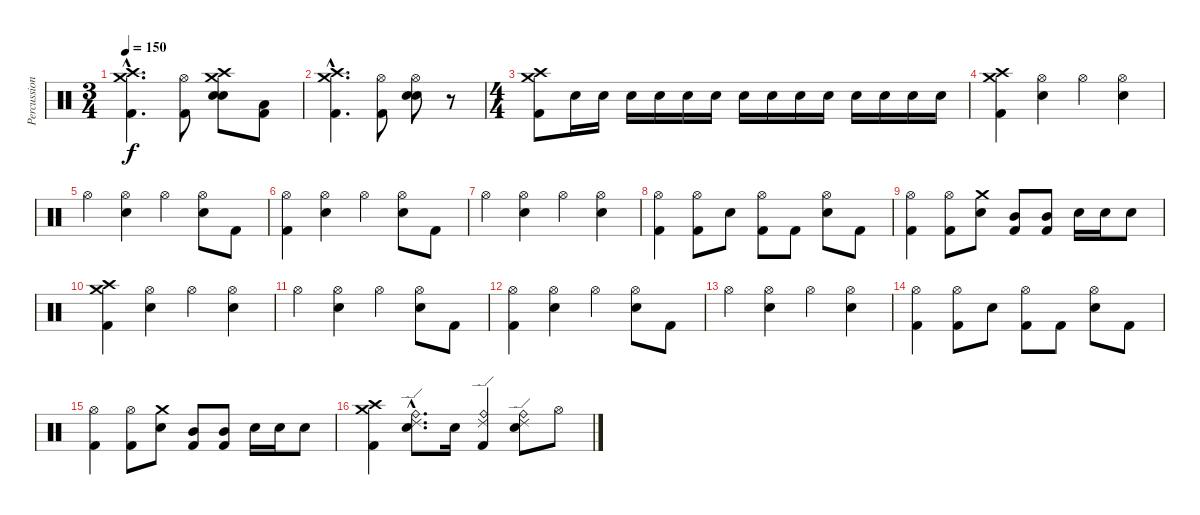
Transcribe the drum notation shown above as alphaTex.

\track ("Percussion" "Percussion") {instrument percussion}
\staff {score}
\articulation defaults
\ts (3 4)
\tempo 150
\clef neutral
\ks c
("Crash medium (hit)"{hac} "Crash high (hit)"{hac} "Kick (hit) 2"{hac}).4{d dy f} ("Hi-Hat (open)" "Kick (hit) 2").8 ("Crash high (hit)" "Crash medium (hit)" "Snare (hit) 2" "Snare (hit) 2").8 ("Low Floor Tom (hit)" "Kick (hit) 2").8 |
("Crash medium (hit)"{hac} "Crash high (hit)"{hac} "Kick (hit) 2"{hac}).4{d} ("Hi-Hat (open)" "Kick (hit) 2").8 ("Hi-Hat (open)" "Snare (hit) 2" "Snare (hit) 2").8 r.8 |
\ts (4 4)
("Crash medium (hit)" "Crash high (hit)" "Kick (hit) 2").8 "Snare (hit) 2".16 "Snare (hit) 2".16 "Snare (hit) 2".16 "Snare (hit) 2".16 "Snare (hit) 2".16 "Snare (hit) 2".16 "Snare (hit) 2".16 "Snare (hit) 2".16 "Snare (hit) 2".16 "Snare (hit) 2".16 "Snare (hit) 2".16 "Snare (hit) 2".16 "Snare (hit) 2".16 "Snare (hit) 2".16 |
("Crash high (hit)" "Crash medium (hit)" "Kick (hit) 2").4 ("Hi-Hat (open)" "Snare (hit) 2").4 "Hi-Hat (open)".4 ("Hi-Hat (open)" "Snare (hit) 2").4 |
"Hi-Hat (open)".4 ("Hi-Hat (open)" "Snare (hit) 2").4 "Hi-Hat (open)".4 ("Hi-Hat (open)" "Snare (hit) 2").8 "Kick (hit) 2".8 |
("Hi-Hat (open)" "Kick (hit) 2").4 ("Hi-Hat (open)" "Snare (hit) 2").4 "Hi-Hat (open)".4 ("Hi-Hat (open)" "Snare (hit) 2").8 "Kick (hit) 2".8 |
"Hi-Hat (open)".4 ("Hi-Hat (open)" "Snare (hit) 2").4 "Hi-Hat (open)".4 ("Hi-Hat (open)" "Snare (hit) 2").4 |
("Hi-Hat (open)" "Kick (hit) 2").4 ("Hi-Hat (open)" "Kick (hit) 2").8 "Snare (hit) 2".8 ("Hi-Hat (open)" "Kick (hit) 2").8 "Kick (hit) 2".8 ("Hi-Hat (open)" "Snare (hit) 2").8 "Kick (hit) 2".8 |
("Hi-Hat (open)" "Kick (hit) 2").4 ("Hi-Hat (open)" "Kick (hit) 2").8 ("Crash medium (hit)" "Snare (hit) 2").8 ("Kick (hit) 2" "Mid Tom (hit)").8 ("Kick (hit) 2" "Mid Tom (hit)").8 "Snare (hit) 2".16 "Snare (hit) 2".16 "Snare (hit) 2".8 |
("Crash high (hit)" "Crash medium (hit)" "Kick (hit) 2").4 ("Hi-Hat (open)" "Snare (hit) 2").4 "Hi-Hat (open)".4 ("Hi-Hat (open)" "Snare (hit) 2").4 |
"Hi-Hat (open)".4 ("Hi-Hat (open)" "Snare (hit) 2").4 "Hi-Hat (open)".4 ("Hi-Hat (open)" "Snare (hit) 2").8 "Kick (hit) 2".8 |
("Hi-Hat (open)" "Kick (hit) 2").4 ("Hi-Hat (open)" "Snare (hit) 2").4 "Hi-Hat (open)".4 ("Hi-Hat (open)" "Snare (hit) 2").8 "Kick (hit) 2".8 |
"Hi-Hat (open)".4 ("Hi-Hat (open)" "Snare (hit) 2").4 "Hi-Hat (open)".4 ("Hi-Hat (open)" "Snare (hit) 2").4 |
("Hi-Hat (open)" "Kick (hit) 2").4 ("Hi-Hat (open)" "Kick (hit) 2").8 "Snare (hit) 2".8 ("Hi-Hat (open)" "Kick (hit) 2").8 "Kick (hit) 2".8 ("Hi-Hat (open)" "Snare (hit) 2").8 "Kick (hit) 2".8 |
("Hi-Hat (open)" "Kick (hit) 2").4 ("Hi-Hat (open)" "Kick (hit) 2").8 ("Crash medium (hit)" "Snare (hit) 2").8 ("Kick (hit) 2" "Mid Tom (hit)").8 ("Kick (hit) 2" "Mid Tom (hit)").8 "Snare (hit) 2".16 "Snare (hit) 2".16 "Snare (hit) 2".8 |
("Crash high (hit)" "Crash medium (hit)" "Kick (hit) 2").4 ("Ride (bell)"{hac} "Ride (edge) 2"{hac} "Snare (hit) 2"{hac}).8{d} "Snare (hit) 2".16 ("Ride (bell)" "Ride (edge) 2" "Kick (hit) 2").4 ("Ride (bell)" "Ride (edge) 2" "Snare (hit) 2").8 "Hi-Hat (open)".8
